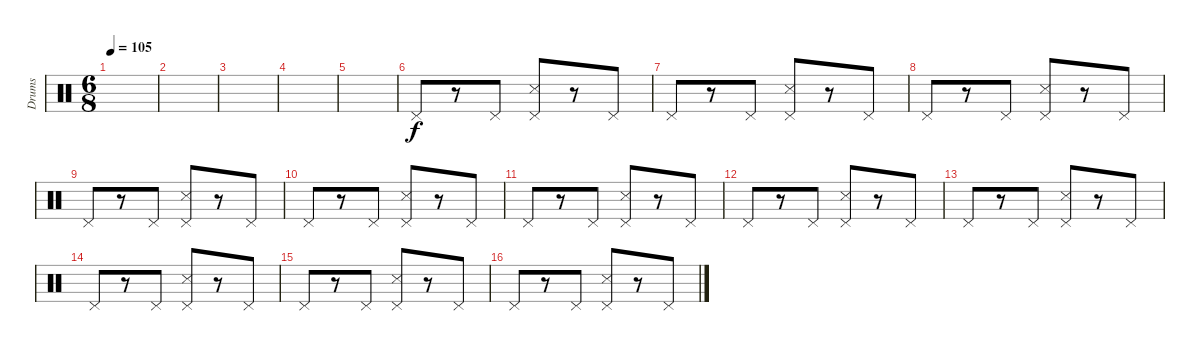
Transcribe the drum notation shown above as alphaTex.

\track ("Drums" "Drums") {instrument percussion}
\staff {score}
\articulation defaults
\ts (6 8)
\tempo 105
\clef neutral
\ks c
|
|
|
|
|
"Pedal Hi-Hat (hit)".8 r.8 "Pedal Hi-Hat (hit)".8 ("Pedal Hi-Hat (hit)" "Metronome (hit)").8 r.8 "Pedal Hi-Hat (hit)".8 |
"Pedal Hi-Hat (hit)".8 r.8 "Pedal Hi-Hat (hit)".8 ("Pedal Hi-Hat (hit)" "Metronome (hit)").8 r.8 "Pedal Hi-Hat (hit)".8 |
"Pedal Hi-Hat (hit)".8 r.8 "Pedal Hi-Hat (hit)".8 ("Pedal Hi-Hat (hit)" "Metronome (hit)").8 r.8 "Pedal Hi-Hat (hit)".8 |
"Pedal Hi-Hat (hit)".8 r.8 "Pedal Hi-Hat (hit)".8 ("Pedal Hi-Hat (hit)" "Metronome (hit)").8 r.8 "Pedal Hi-Hat (hit)".8 |
"Pedal Hi-Hat (hit)".8 r.8 "Pedal Hi-Hat (hit)".8 ("Pedal Hi-Hat (hit)" "Metronome (hit)").8 r.8 "Pedal Hi-Hat (hit)".8 |
"Pedal Hi-Hat (hit)".8 r.8 "Pedal Hi-Hat (hit)".8 ("Pedal Hi-Hat (hit)" "Metronome (hit)").8 r.8 "Pedal Hi-Hat (hit)".8 |
"Pedal Hi-Hat (hit)".8 r.8 "Pedal Hi-Hat (hit)".8 ("Pedal Hi-Hat (hit)" "Metronome (hit)").8 r.8 "Pedal Hi-Hat (hit)".8 |
"Pedal Hi-Hat (hit)".8 r.8 "Pedal Hi-Hat (hit)".8 ("Pedal Hi-Hat (hit)" "Metronome (hit)").8 r.8 "Pedal Hi-Hat (hit)".8 |
"Pedal Hi-Hat (hit)".8 r.8 "Pedal Hi-Hat (hit)".8 ("Pedal Hi-Hat (hit)" "Metronome (hit)").8 r.8 "Pedal Hi-Hat (hit)".8 |
"Pedal Hi-Hat (hit)".8 r.8 "Pedal Hi-Hat (hit)".8 ("Pedal Hi-Hat (hit)" "Metronome (hit)").8 r.8 "Pedal Hi-Hat (hit)".8 |
"Pedal Hi-Hat (hit)".8 r.8 "Pedal Hi-Hat (hit)".8 ("Pedal Hi-Hat (hit)" "Metronome (hit)").8 r.8 "Pedal Hi-Hat (hit)".8
